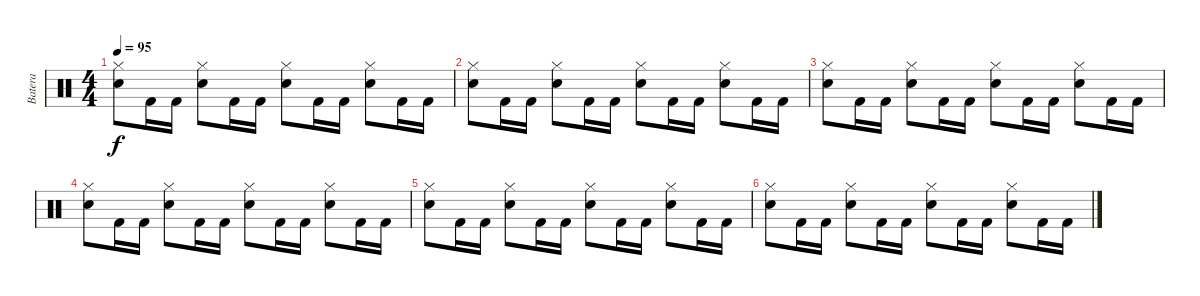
\track ("Batera" "Batera") {instrument percussion}
\staff {score}
\articulation defaults
\ts (4 4)
\tempo 95
\clef neutral
\ks c
("Hi-Hat (closed)" "Snare (hit) 2").8{dy f} "Kick (hit) 2".16 "Kick (hit) 2".16 ("Hi-Hat (closed)" "Snare (hit) 2").8 "Kick (hit) 2".16 "Kick (hit) 2".16 ("Hi-Hat (closed)" "Snare (hit) 2").8 "Kick (hit) 2".16 "Kick (hit) 2".16 ("Hi-Hat (closed)" "Snare (hit) 2").8 "Kick (hit) 2".16 "Kick (hit) 2".16 |
("Hi-Hat (closed)" "Snare (hit) 2").8 "Kick (hit) 2".16 "Kick (hit) 2".16 ("Hi-Hat (closed)" "Snare (hit) 2").8 "Kick (hit) 2".16 "Kick (hit) 2".16 ("Hi-Hat (closed)" "Snare (hit) 2").8 "Kick (hit) 2".16 "Kick (hit) 2".16 ("Hi-Hat (closed)" "Snare (hit) 2").8 "Kick (hit) 2".16 "Kick (hit) 2".16 |
("Hi-Hat (closed)" "Snare (hit) 2").8 "Kick (hit) 2".16 "Kick (hit) 2".16 ("Hi-Hat (closed)" "Snare (hit) 2").8 "Kick (hit) 2".16 "Kick (hit) 2".16 ("Hi-Hat (closed)" "Snare (hit) 2").8 "Kick (hit) 2".16 "Kick (hit) 2".16 ("Hi-Hat (closed)" "Snare (hit) 2").8 "Kick (hit) 2".16 "Kick (hit) 2".16 |
("Hi-Hat (closed)" "Snare (hit) 2").8 "Kick (hit) 2".16 "Kick (hit) 2".16 ("Hi-Hat (closed)" "Snare (hit) 2").8 "Kick (hit) 2".16 "Kick (hit) 2".16 ("Hi-Hat (closed)" "Snare (hit) 2").8 "Kick (hit) 2".16 "Kick (hit) 2".16 ("Hi-Hat (closed)" "Snare (hit) 2").8 "Kick (hit) 2".16 "Kick (hit) 2".16 |
("Hi-Hat (closed)" "Snare (hit) 2").8 "Kick (hit) 2".16 "Kick (hit) 2".16 ("Hi-Hat (closed)" "Snare (hit) 2").8 "Kick (hit) 2".16 "Kick (hit) 2".16 ("Hi-Hat (closed)" "Snare (hit) 2").8 "Kick (hit) 2".16 "Kick (hit) 2".16 ("Hi-Hat (closed)" "Snare (hit) 2").8 "Kick (hit) 2".16 "Kick (hit) 2".16 |
("Hi-Hat (closed)" "Snare (hit) 2").8 "Kick (hit) 2".16 "Kick (hit) 2".16 ("Hi-Hat (closed)" "Snare (hit) 2").8 "Kick (hit) 2".16 "Kick (hit) 2".16 ("Hi-Hat (closed)" "Snare (hit) 2").8 "Kick (hit) 2".16 "Kick (hit) 2".16 ("Hi-Hat (closed)" "Snare (hit) 2").8 "Kick (hit) 2".16 "Kick (hit) 2".16
